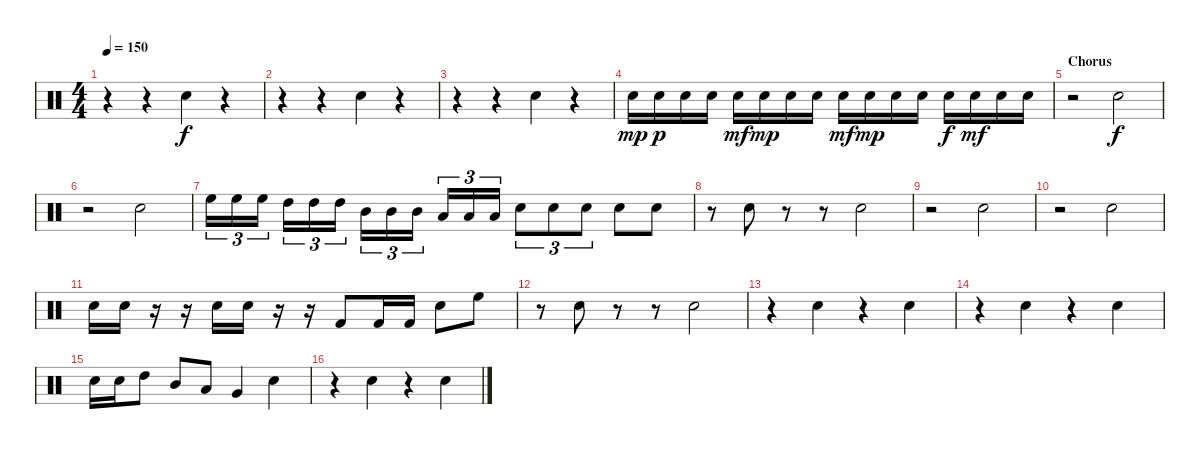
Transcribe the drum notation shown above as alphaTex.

\track "" {instrument percussion}
\staff {score}
\articulation defaults
\ts (4 4)
\tempo 150
\clef neutral
\ks c
r.4{dy f} r.4 "Electric Snare (hit)".4 r.4 |
r.4 r.4 "Electric Snare (hit)".4 r.4 |
r.4 r.4 "Electric Snare (hit)".4 r.4 |
"Electric Snare (hit)".16{dy mp} "Electric Snare (hit)".16{dy p} "Electric Snare (hit)".16 "Electric Snare (hit)".16 "Electric Snare (hit)".16{dy mf} "Electric Snare (hit)".16{dy mp} "Electric Snare (hit)".16 "Electric Snare (hit)".16 "Electric Snare (hit)".16{dy mf} "Electric Snare (hit)".16{dy mp} "Electric Snare (hit)".16 "Electric Snare (hit)".16 "Electric Snare (hit)".16{dy f} "Electric Snare (hit)".16{dy mf} "Electric Snare (hit)".16 "Electric Snare (hit)".16 |
\section ("" "Chorus")
r.2 "Electric Snare (hit)".2{dy f} |
r.2 "Electric Snare (hit)".2 |
"High Floor Tom (hit)".16{tu (3 2)} "High Floor Tom (hit)".16{tu (3 2)} "High Floor Tom (hit)".16{tu (3 2)} "High Tom (hit)".16{tu (3 2)} "High Tom (hit)".16{tu (3 2)} "High Tom (hit)".16{tu (3 2)} "Mid Tom (hit)".16{tu (3 2)} "Mid Tom (hit)".16{tu (3 2)} "Mid Tom (hit)".16{tu (3 2)} "Low Tom (hit)".16{tu (3 2)} "Low Tom (hit)".16{tu (3 2)} "Low Tom (hit)".16{tu (3 2)} "Electric Snare (hit)".8{tu (3 2)} "Electric Snare (hit)".8{tu (3 2)} "Electric Snare (hit)".8{tu (3 2)} "Electric Snare (hit)".8 "Electric Snare (hit)".8 |
r.8 "Electric Snare (hit)".8 r.8 r.8 "Electric Snare (hit)".2 |
r.2 "Electric Snare (hit)".2 |
r.2 "Electric Snare (hit)".2 |
"Electric Snare (hit)".16 "Electric Snare (hit)".16 r.16 r.16 "Electric Snare (hit)".16 "Electric Snare (hit)".16 r.16 r.16 "Kick (hit) 2".8 "Kick (hit) 2".16 "Kick (hit) 2".16 "Electric Snare (hit)".8 "High Floor Tom (hit)".8 |
r.8 "Electric Snare (hit)".8 r.8 r.8 "Electric Snare (hit)".2 |
r.4 "Electric Snare (hit)".4 r.4 "Electric Snare (hit)".4 |
r.4 "Electric Snare (hit)".4 r.4 "Electric Snare (hit)".4 |
"Electric Snare (hit)".16 "Electric Snare (hit)".16 "High Tom (hit)".8 "Mid Tom (hit)".8 "Low Tom (hit)".8 "Very Low Tom (hit)".4 "Electric Snare (hit)".4 |
r.4 "Electric Snare (hit)".4 r.4 "Electric Snare (hit)".4
